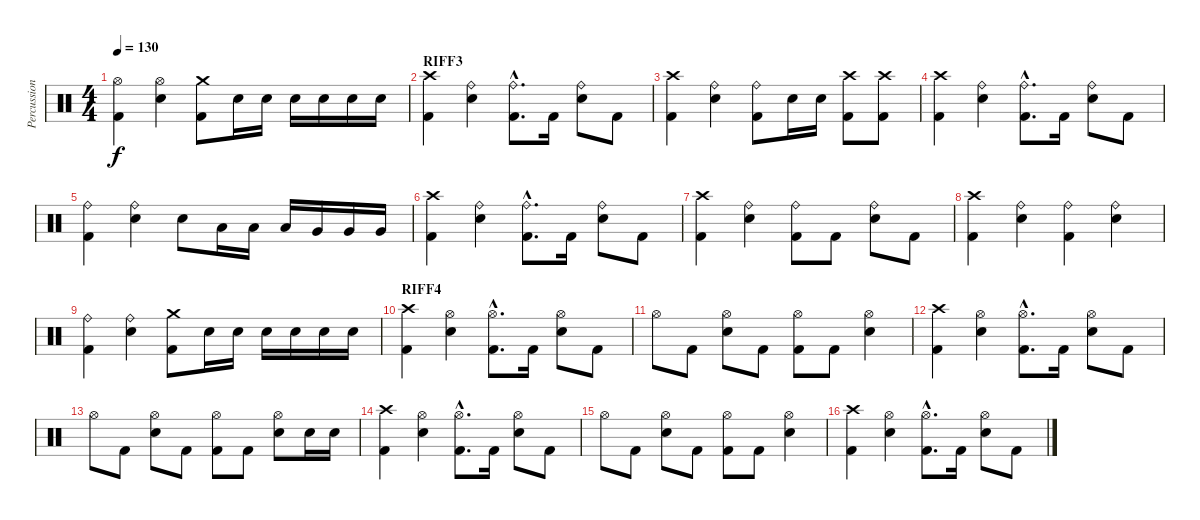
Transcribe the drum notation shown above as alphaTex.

\track ("Percussion" "Percussion") {instrument percussion}
\staff {score}
\articulation defaults
\ts (4 4)
\tempo 130
\clef neutral
\ks c
("Hi-Hat (open)" "Kick (hit) 2").4{dy f} ("Hi-Hat (open)" "Electric Snare (hit)").4 ("Crash medium (hit)" "Kick (hit) 2").8 "Electric Snare (hit)".16 "Electric Snare (hit)".16 "Electric Snare (hit)".16 "Electric Snare (hit)".16 "Electric Snare (hit)".16 "Electric Snare (hit)".16 |
\section ("" "RIFF3")
("Crash high (hit)" "Kick (hit) 2").4 ("Ride (bell)" "Electric Snare (hit)").4 ("Ride (bell)"{hac} "Kick (hit) 2"{hac}).8{d} "Kick (hit) 2".16 ("Ride (bell)" "Electric Snare (hit)").8 "Kick (hit) 2".8 |
("Crash high (hit)" "Kick (hit) 2").4 ("Ride (bell)" "Electric Snare (hit)").4 ("Ride (bell)" "Kick (hit) 2").8 "Electric Snare (hit)".16 "Electric Snare (hit)".16 ("Crash high (hit)" "Kick (hit) 2").8 ("Crash high (hit)" "Kick (hit) 2").8 |
("Crash high (hit)" "Kick (hit) 2").4 ("Ride (bell)" "Electric Snare (hit)").4 ("Ride (bell)"{hac} "Kick (hit) 2"{hac}).8{d} "Kick (hit) 2".16 ("Ride (bell)" "Electric Snare (hit)").8 "Kick (hit) 2".8 |
("Ride (bell)" "Kick (hit) 2").4 ("Ride (bell)" "Electric Snare (hit)").4 "Electric Snare (hit)".8 "Low Tom (hit)".16 "Low Tom (hit)".16 "Low Tom (hit)".16 "Very Low Tom (hit)".16 "Very Low Tom (hit)".16 "Very Low Tom (hit)".16 |
("Crash high (hit)" "Kick (hit) 2").4 ("Ride (bell)" "Electric Snare (hit)").4 ("Ride (bell)"{hac} "Kick (hit) 2"{hac}).8{d} "Kick (hit) 2".16 ("Ride (bell)" "Electric Snare (hit)").8 "Kick (hit) 2".8 |
("Crash high (hit)" "Kick (hit) 2").4 ("Ride (bell)" "Electric Snare (hit)").4 ("Ride (bell)" "Kick (hit) 2").8 "Kick (hit) 2".8 ("Ride (bell)" "Electric Snare (hit)").8 "Kick (hit) 2".8 |
("Crash high (hit)" "Kick (hit) 2").4 ("Ride (bell)" "Electric Snare (hit)").4 ("Ride (bell)" "Kick (hit) 2").4 ("Ride (bell)" "Electric Snare (hit)").4 |
("Ride (bell)" "Kick (hit) 2").4 ("Ride (bell)" "Electric Snare (hit)").4 ("Crash medium (hit)" "Kick (hit) 2").8 "Electric Snare (hit)".16 "Electric Snare (hit)".16 "Electric Snare (hit)".16 "Electric Snare (hit)".16 "Electric Snare (hit)".16 "Electric Snare (hit)".16 |
\section ("" "RIFF4")
("Crash high (hit)" "Kick (hit) 2").4 ("Hi-Hat (open)" "Electric Snare (hit)").4 ("Hi-Hat (open)"{hac} "Kick (hit) 2"{hac}).8{d} "Kick (hit) 2".16 ("Hi-Hat (open)" "Electric Snare (hit)").8 "Kick (hit) 2".8 |
"Hi-Hat (open)".8 "Kick (hit) 2".8 ("Hi-Hat (open)" "Electric Snare (hit)").8 "Kick (hit) 2".8 ("Hi-Hat (open)" "Kick (hit) 2").8 "Kick (hit) 2".8 ("Hi-Hat (open)" "Electric Snare (hit)").4 |
("Crash high (hit)" "Kick (hit) 2").4 ("Hi-Hat (open)" "Electric Snare (hit)").4 ("Hi-Hat (open)"{hac} "Kick (hit) 2"{hac}).8{d} "Kick (hit) 2".16 ("Hi-Hat (open)" "Electric Snare (hit)").8 "Kick (hit) 2".8 |
"Hi-Hat (open)".8 "Kick (hit) 2".8 ("Hi-Hat (open)" "Electric Snare (hit)").8 "Kick (hit) 2".8 ("Hi-Hat (open)" "Kick (hit) 2").8 "Kick (hit) 2".8 ("Hi-Hat (open)" "Electric Snare (hit)").8 "Electric Snare (hit)".16 "Electric Snare (hit)".16 |
("Crash high (hit)" "Kick (hit) 2").4 ("Hi-Hat (open)" "Electric Snare (hit)").4 ("Hi-Hat (open)"{hac} "Kick (hit) 2"{hac}).8{d} "Kick (hit) 2".16 ("Hi-Hat (open)" "Electric Snare (hit)").8 "Kick (hit) 2".8 |
"Hi-Hat (open)".8 "Kick (hit) 2".8 ("Hi-Hat (open)" "Electric Snare (hit)").8 "Kick (hit) 2".8 ("Hi-Hat (open)" "Kick (hit) 2").8 "Kick (hit) 2".8 ("Hi-Hat (open)" "Electric Snare (hit)").4 |
("Crash high (hit)" "Kick (hit) 2").4 ("Hi-Hat (open)" "Electric Snare (hit)").4 ("Hi-Hat (open)"{hac} "Kick (hit) 2"{hac}).8{d} "Kick (hit) 2".16 ("Hi-Hat (open)" "Electric Snare (hit)").8 "Kick (hit) 2".8
